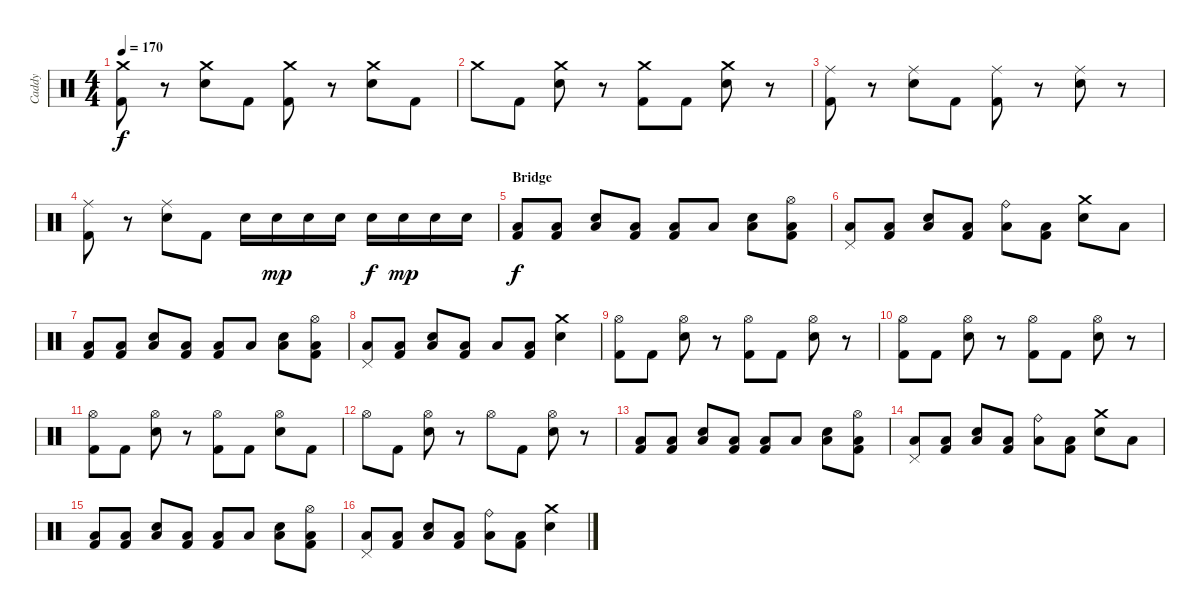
\track ("Caddy" "Caddy") {instrument percussion}
\staff {score}
\articulation defaults
\ts (4 4)
\tempo 170
\clef neutral
\ks c
("Crash medium (hit)" "Kick (hit) 2").8{dy f} r.8 ("Crash medium (hit)" "Electric Snare (hit)").8 "Kick (hit) 2".8 ("Crash medium (hit)" "Kick (hit) 2").8 r.8 ("Crash medium (hit)" "Electric Snare (hit)").8 "Kick (hit) 2".8 |
"Crash medium (hit)".8 "Kick (hit) 2".8 ("Crash medium (hit)" "Electric Snare (hit)").8 r.8 ("Crash medium (hit)" "Kick (hit) 2").8 "Kick (hit) 2".8 ("Crash medium (hit)" "Electric Snare (hit)").8 r.8 |
("Ride (middle)" "Kick (hit) 2").8 r.8 ("Ride (middle)" "Electric Snare (hit)").8 "Kick (hit) 2".8 ("Ride (middle)" "Kick (hit) 2").8 r.8 ("Ride (middle)" "Electric Snare (hit)").8 r.8 |
("Ride (middle)" "Kick (hit) 2").8 r.8 ("Ride (middle)" "Electric Snare (hit)").8 "Kick (hit) 2".8 "Electric Snare (hit)".16 "Electric Snare (hit)".16{dy mp} "Electric Snare (hit)".16 "Electric Snare (hit)".16 "Electric Snare (hit)".16{dy f} "Electric Snare (hit)".16{dy mp} "Electric Snare (hit)".16 "Electric Snare (hit)".16 |
\section ("" "Bridge")
("Low Floor Tom (hit)" "Kick (hit) 2").8{dy f} ("Low Floor Tom (hit)" "Kick (hit) 2").8 ("Electric Snare (hit)" "Low Floor Tom (hit)").8 ("Low Floor Tom (hit)" "Kick (hit) 2").8 ("Low Floor Tom (hit)" "Kick (hit) 2").8 "Low Floor Tom (hit)".8 ("Electric Snare (hit)" "Low Floor Tom (hit)").8 ("Hi-Hat (open)" "Low Floor Tom (hit)" "Kick (hit) 2").8 |
("Pedal Hi-Hat (hit)" "Low Floor Tom (hit)").8 ("Low Floor Tom (hit)" "Kick (hit) 2").8 ("Electric Snare (hit)" "Low Floor Tom (hit)").8 ("Low Floor Tom (hit)" "Kick (hit) 2").8 ("Ride (bell)" "Low Floor Tom (hit)").8 ("Low Floor Tom (hit)" "Kick (hit) 2").8 ("Crash medium (hit)" "Electric Snare (hit)").8 "Low Floor Tom (hit)".8 |
("Low Floor Tom (hit)" "Kick (hit) 2").8 ("Low Floor Tom (hit)" "Kick (hit) 2").8 ("Electric Snare (hit)" "Low Floor Tom (hit)").8 ("Low Floor Tom (hit)" "Kick (hit) 2").8 ("Low Floor Tom (hit)" "Kick (hit) 2").8 "Low Floor Tom (hit)".8 ("Electric Snare (hit)" "Low Floor Tom (hit)").8 ("Hi-Hat (open)" "Low Floor Tom (hit)" "Kick (hit) 2").8 |
("Pedal Hi-Hat (hit)" "Low Floor Tom (hit)").8 ("Low Floor Tom (hit)" "Kick (hit) 2").8 ("Electric Snare (hit)" "Low Floor Tom (hit)").8 ("Low Floor Tom (hit)" "Kick (hit) 2").8 "Low Floor Tom (hit)".8 ("Low Floor Tom (hit)" "Kick (hit) 2").8 ("Crash medium (hit)" "Electric Snare (hit)").4 |
("Hi-Hat (open)" "Kick (hit) 2").8 "Kick (hit) 2".8 ("Hi-Hat (open)" "Electric Snare (hit)").8 r.8 ("Hi-Hat (open)" "Kick (hit) 2").8 "Kick (hit) 2".8 ("Hi-Hat (open)" "Electric Snare (hit)").8 r.8 |
("Hi-Hat (open)" "Kick (hit) 2").8 "Kick (hit) 2".8 ("Hi-Hat (open)" "Electric Snare (hit)").8 r.8 ("Hi-Hat (open)" "Kick (hit) 2").8 "Kick (hit) 2".8 ("Hi-Hat (open)" "Electric Snare (hit)").8 r.8 |
("Hi-Hat (open)" "Kick (hit) 2").8 "Kick (hit) 2".8 ("Hi-Hat (open)" "Electric Snare (hit)").8 r.8 ("Hi-Hat (open)" "Kick (hit) 2").8 "Kick (hit) 2".8 ("Hi-Hat (open)" "Electric Snare (hit)").8 "Kick (hit) 2".8 |
"Hi-Hat (open)".8 "Kick (hit) 2".8 ("Hi-Hat (open)" "Electric Snare (hit)").8 r.8 "Hi-Hat (open)".8 "Kick (hit) 2".8 ("Hi-Hat (open)" "Electric Snare (hit)").8 r.8 |
("Low Floor Tom (hit)" "Kick (hit) 2").8 ("Low Floor Tom (hit)" "Kick (hit) 2").8 ("Electric Snare (hit)" "Low Floor Tom (hit)").8 ("Low Floor Tom (hit)" "Kick (hit) 2").8 ("Low Floor Tom (hit)" "Kick (hit) 2").8 "Low Floor Tom (hit)".8 ("Electric Snare (hit)" "Low Floor Tom (hit)").8 ("Hi-Hat (open)" "Low Floor Tom (hit)" "Kick (hit) 2").8 |
("Pedal Hi-Hat (hit)" "Low Floor Tom (hit)").8 ("Low Floor Tom (hit)" "Kick (hit) 2").8 ("Electric Snare (hit)" "Low Floor Tom (hit)").8 ("Low Floor Tom (hit)" "Kick (hit) 2").8 ("Ride (bell)" "Low Floor Tom (hit)").8 ("Low Floor Tom (hit)" "Kick (hit) 2").8 ("Crash medium (hit)" "Electric Snare (hit)").8 "Low Floor Tom (hit)".8 |
("Low Floor Tom (hit)" "Kick (hit) 2").8 ("Low Floor Tom (hit)" "Kick (hit) 2").8 ("Electric Snare (hit)" "Low Floor Tom (hit)").8 ("Low Floor Tom (hit)" "Kick (hit) 2").8 ("Low Floor Tom (hit)" "Kick (hit) 2").8 "Low Floor Tom (hit)".8 ("Electric Snare (hit)" "Low Floor Tom (hit)").8 ("Hi-Hat (open)" "Low Floor Tom (hit)" "Kick (hit) 2").8 |
("Pedal Hi-Hat (hit)" "Low Floor Tom (hit)").8 ("Low Floor Tom (hit)" "Kick (hit) 2").8 ("Electric Snare (hit)" "Low Floor Tom (hit)").8 ("Low Floor Tom (hit)" "Kick (hit) 2").8 ("Ride (bell)" "Low Floor Tom (hit)").8 ("Low Floor Tom (hit)" "Kick (hit) 2").8 ("Crash medium (hit)" "Electric Snare (hit)").4
